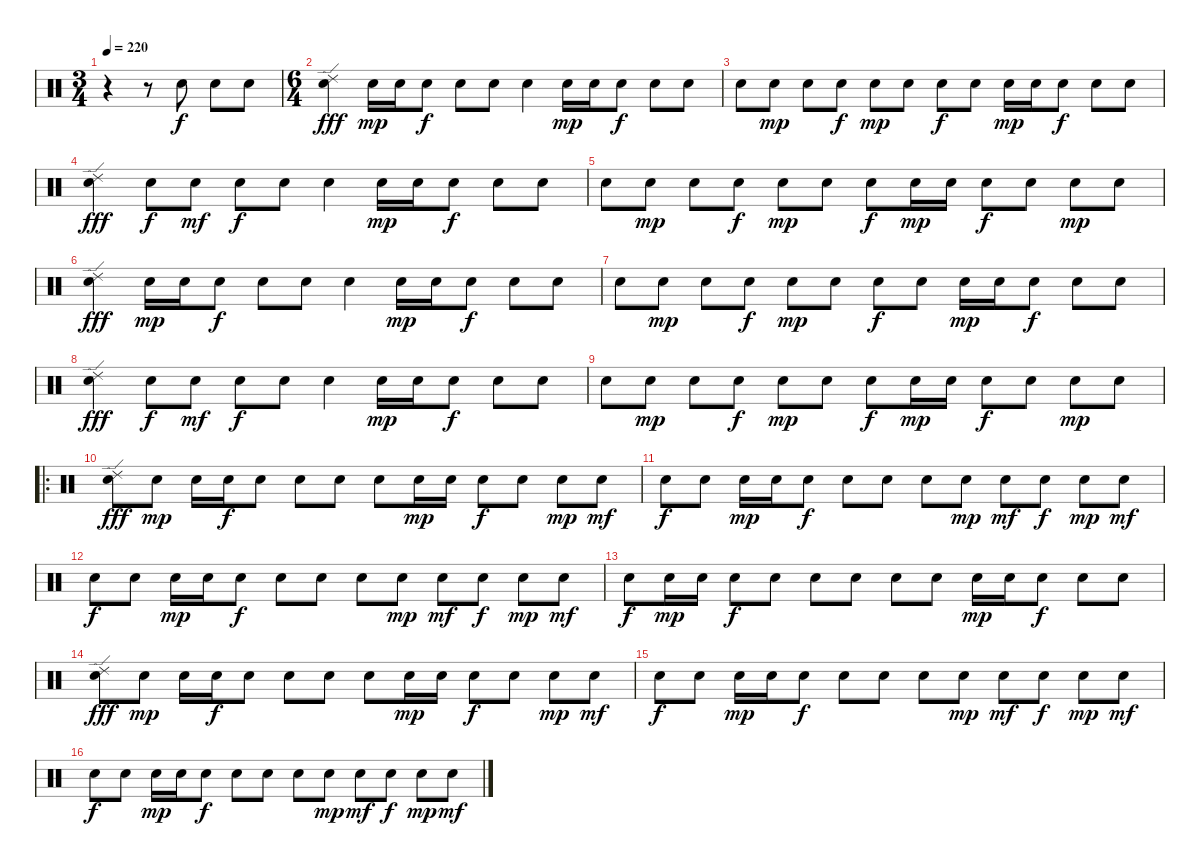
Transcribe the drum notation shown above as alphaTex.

\track "" {instrument percussion}
\staff {score}
\articulation defaults
\ts (3 4)
\tempo 220
\clef neutral
\ks c
r.4{dy f} r.8 "Snare (hit) 2".8 "Snare (hit) 2".8 "Snare (hit) 2".8 |
\ts (6 4)
("Snare (hit) 2" "Ride (edge) 2").4{dy fff} "Snare (hit) 2".16{dy mp} "Snare (hit) 2".16 "Snare (hit) 2".8{dy f} "Snare (hit) 2".8 "Snare (hit) 2".8 "Snare (hit) 2".4 "Snare (hit) 2".16{dy mp} "Snare (hit) 2".16 "Snare (hit) 2".8{dy f} "Snare (hit) 2".8 "Snare (hit) 2".8 |
"Snare (hit) 2".8 "Snare (hit) 2".8{dy mp} "Snare (hit) 2".8 "Snare (hit) 2".8{dy f} "Snare (hit) 2".8{dy mp} "Snare (hit) 2".8 "Snare (hit) 2".8{dy f} "Snare (hit) 2".8 "Snare (hit) 2".16{dy mp} "Snare (hit) 2".16 "Snare (hit) 2".8{dy f} "Snare (hit) 2".8 "Snare (hit) 2".8 |
("Snare (hit) 2" "Ride (edge) 2").4{dy fff} "Snare (hit) 2".8{dy f} "Snare (hit) 2".8{dy mf} "Snare (hit) 2".8{dy f} "Snare (hit) 2".8 "Snare (hit) 2".4 "Snare (hit) 2".16{dy mp} "Snare (hit) 2".16 "Snare (hit) 2".8{dy f} "Snare (hit) 2".8 "Snare (hit) 2".8 |
"Snare (hit) 2".8 "Snare (hit) 2".8{dy mp} "Snare (hit) 2".8 "Snare (hit) 2".8{dy f} "Snare (hit) 2".8{dy mp} "Snare (hit) 2".8 "Snare (hit) 2".8{dy f} "Snare (hit) 2".16{dy mp} "Snare (hit) 2".16 "Snare (hit) 2".8{dy f} "Snare (hit) 2".8 "Snare (hit) 2".8{dy mp} "Snare (hit) 2".8 |
("Snare (hit) 2" "Ride (edge) 2").4{dy fff} "Snare (hit) 2".16{dy mp} "Snare (hit) 2".16 "Snare (hit) 2".8{dy f} "Snare (hit) 2".8 "Snare (hit) 2".8 "Snare (hit) 2".4 "Snare (hit) 2".16{dy mp} "Snare (hit) 2".16 "Snare (hit) 2".8{dy f} "Snare (hit) 2".8 "Snare (hit) 2".8 |
"Snare (hit) 2".8 "Snare (hit) 2".8{dy mp} "Snare (hit) 2".8 "Snare (hit) 2".8{dy f} "Snare (hit) 2".8{dy mp} "Snare (hit) 2".8 "Snare (hit) 2".8{dy f} "Snare (hit) 2".8 "Snare (hit) 2".16{dy mp} "Snare (hit) 2".16 "Snare (hit) 2".8{dy f} "Snare (hit) 2".8 "Snare (hit) 2".8 |
("Snare (hit) 2" "Ride (edge) 2").4{dy fff} "Snare (hit) 2".8{dy f} "Snare (hit) 2".8{dy mf} "Snare (hit) 2".8{dy f} "Snare (hit) 2".8 "Snare (hit) 2".4 "Snare (hit) 2".16{dy mp} "Snare (hit) 2".16 "Snare (hit) 2".8{dy f} "Snare (hit) 2".8 "Snare (hit) 2".8 |
"Snare (hit) 2".8 "Snare (hit) 2".8{dy mp} "Snare (hit) 2".8 "Snare (hit) 2".8{dy f} "Snare (hit) 2".8{dy mp} "Snare (hit) 2".8 "Snare (hit) 2".8{dy f} "Snare (hit) 2".16{dy mp} "Snare (hit) 2".16 "Snare (hit) 2".8{dy f} "Snare (hit) 2".8 "Snare (hit) 2".8{dy mp} "Snare (hit) 2".8 |
\ro
("Snare (hit) 2" "Ride (edge) 2").8{dy fff} "Snare (hit) 2".8{dy mp} "Snare (hit) 2".16 "Snare (hit) 2".16{dy f} "Snare (hit) 2".8 "Snare (hit) 2".8 "Snare (hit) 2".8 "Snare (hit) 2".8 "Snare (hit) 2".16{dy mp} "Snare (hit) 2".16 "Snare (hit) 2".8{dy f} "Snare (hit) 2".8 "Snare (hit) 2".8{dy mp} "Snare (hit) 2".8{dy mf} |
"Snare (hit) 2".8{dy f} "Snare (hit) 2".8 "Snare (hit) 2".16{dy mp} "Snare (hit) 2".16 "Snare (hit) 2".8{dy f} "Snare (hit) 2".8 "Snare (hit) 2".8 "Snare (hit) 2".8 "Snare (hit) 2".8{dy mp} "Snare (hit) 2".8{dy mf} "Snare (hit) 2".8{dy f} "Snare (hit) 2".8{dy mp} "Snare (hit) 2".8{dy mf} |
"Snare (hit) 2".8{dy f} "Snare (hit) 2".8 "Snare (hit) 2".16{dy mp} "Snare (hit) 2".16 "Snare (hit) 2".8{dy f} "Snare (hit) 2".8 "Snare (hit) 2".8 "Snare (hit) 2".8 "Snare (hit) 2".8{dy mp} "Snare (hit) 2".8{dy mf} "Snare (hit) 2".8{dy f} "Snare (hit) 2".8{dy mp} "Snare (hit) 2".8{dy mf} |
"Snare (hit) 2".8{dy f} "Snare (hit) 2".16{dy mp} "Snare (hit) 2".16 "Snare (hit) 2".8{dy f} "Snare (hit) 2".8 "Snare (hit) 2".8 "Snare (hit) 2".8 "Snare (hit) 2".8 "Snare (hit) 2".8 "Snare (hit) 2".16{dy mp} "Snare (hit) 2".16 "Snare (hit) 2".8{dy f} "Snare (hit) 2".8 "Snare (hit) 2".8 |
("Snare (hit) 2" "Ride (edge) 2").8{dy fff} "Snare (hit) 2".8{dy mp} "Snare (hit) 2".16 "Snare (hit) 2".16{dy f} "Snare (hit) 2".8 "Snare (hit) 2".8 "Snare (hit) 2".8 "Snare (hit) 2".8 "Snare (hit) 2".16{dy mp} "Snare (hit) 2".16 "Snare (hit) 2".8{dy f} "Snare (hit) 2".8 "Snare (hit) 2".8{dy mp} "Snare (hit) 2".8{dy mf} |
"Snare (hit) 2".8{dy f} "Snare (hit) 2".8 "Snare (hit) 2".16{dy mp} "Snare (hit) 2".16 "Snare (hit) 2".8{dy f} "Snare (hit) 2".8 "Snare (hit) 2".8 "Snare (hit) 2".8 "Snare (hit) 2".8{dy mp} "Snare (hit) 2".8{dy mf} "Snare (hit) 2".8{dy f} "Snare (hit) 2".8{dy mp} "Snare (hit) 2".8{dy mf} |
"Snare (hit) 2".8{dy f} "Snare (hit) 2".8 "Snare (hit) 2".16{dy mp} "Snare (hit) 2".16 "Snare (hit) 2".8{dy f} "Snare (hit) 2".8 "Snare (hit) 2".8 "Snare (hit) 2".8 "Snare (hit) 2".8{dy mp} "Snare (hit) 2".8{dy mf} "Snare (hit) 2".8{dy f} "Snare (hit) 2".8{dy mp} "Snare (hit) 2".8{dy mf}
